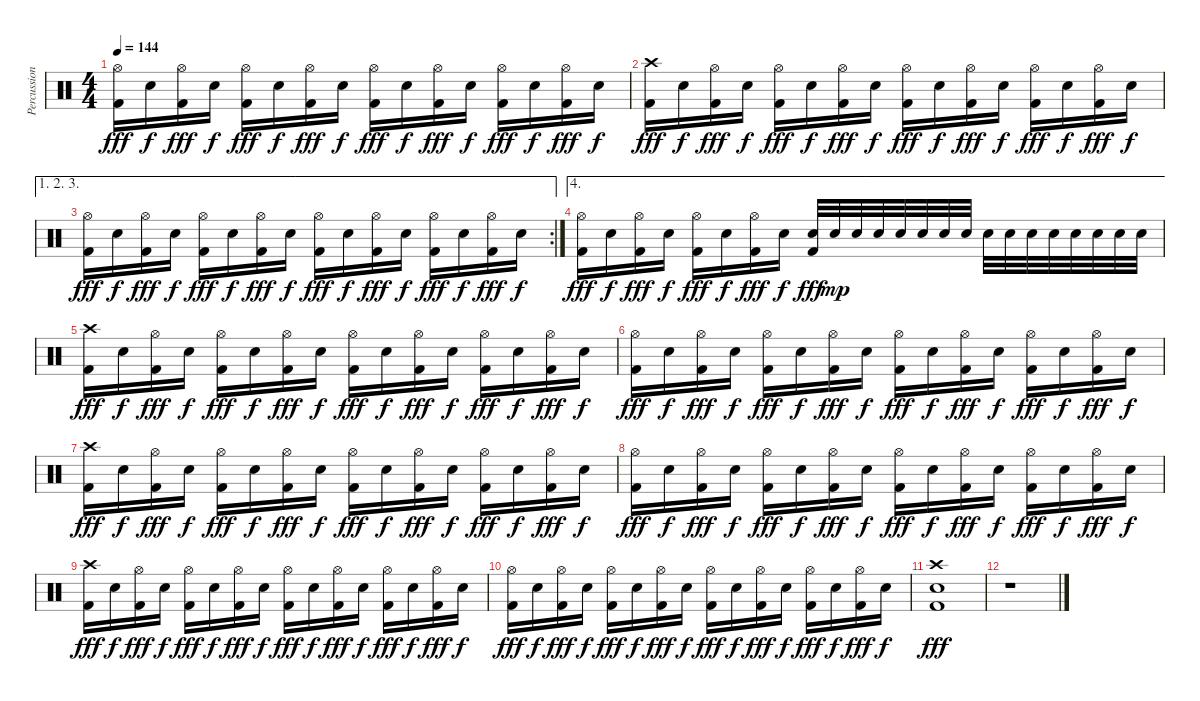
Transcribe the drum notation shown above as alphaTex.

\track ("Percussion" "Percussion") {instrument percussion}
\staff {score}
\articulation defaults
\ts (4 4)
\tempo 144
\clef neutral
\ks c
("Hi-Hat (open)" "Kick (hit) 2").16{dy fff} "Snare (hit) 2".16{dy f} ("Hi-Hat (open)" "Kick (hit) 2").16{dy fff} "Snare (hit) 2".16{dy f} ("Hi-Hat (open)" "Kick (hit) 2").16{dy fff} "Snare (hit) 2".16{dy f} ("Hi-Hat (open)" "Kick (hit) 2").16{dy fff} "Snare (hit) 2".16{dy f} ("Hi-Hat (open)" "Kick (hit) 2").16{dy fff} "Snare (hit) 2".16{dy f} ("Hi-Hat (open)" "Kick (hit) 2").16{dy fff} "Snare (hit) 2".16{dy f} ("Hi-Hat (open)" "Kick (hit) 2").16{dy fff} "Snare (hit) 2".16{dy f} ("Hi-Hat (open)" "Kick (hit) 2").16{dy fff} "Snare (hit) 2".16{dy f} |
("Crash high (hit)" "Kick (hit) 2").16{dy fff} "Snare (hit) 2".16{dy f} ("Hi-Hat (open)" "Kick (hit) 2").16{dy fff} "Snare (hit) 2".16{dy f} ("Hi-Hat (open)" "Kick (hit) 2").16{dy fff} "Snare (hit) 2".16{dy f} ("Hi-Hat (open)" "Kick (hit) 2").16{dy fff} "Snare (hit) 2".16{dy f} ("Hi-Hat (open)" "Kick (hit) 2").16{dy fff} "Snare (hit) 2".16{dy f} ("Hi-Hat (open)" "Kick (hit) 2").16{dy fff} "Snare (hit) 2".16{dy f} ("Hi-Hat (open)" "Kick (hit) 2").16{dy fff} "Snare (hit) 2".16{dy f} ("Hi-Hat (open)" "Kick (hit) 2").16{dy fff} "Snare (hit) 2".16{dy f} |
\ae (1 2 3)
\rc 2
("Hi-Hat (open)" "Kick (hit) 2").16{dy fff} "Snare (hit) 2".16{dy f} ("Hi-Hat (open)" "Kick (hit) 2").16{dy fff} "Snare (hit) 2".16{dy f} ("Hi-Hat (open)" "Kick (hit) 2").16{dy fff} "Snare (hit) 2".16{dy f} ("Hi-Hat (open)" "Kick (hit) 2").16{dy fff} "Snare (hit) 2".16{dy f} ("Hi-Hat (open)" "Kick (hit) 2").16{dy fff} "Snare (hit) 2".16{dy f} ("Hi-Hat (open)" "Kick (hit) 2").16{dy fff} "Snare (hit) 2".16{dy f} ("Hi-Hat (open)" "Kick (hit) 2").16{dy fff} "Snare (hit) 2".16{dy f} ("Hi-Hat (open)" "Kick (hit) 2").16{dy fff} "Snare (hit) 2".16{dy f} |
\ae 4
("Hi-Hat (open)" "Kick (hit) 2").16{dy fff} "Snare (hit) 2".16{dy f} ("Hi-Hat (open)" "Kick (hit) 2").16{dy fff} "Snare (hit) 2".16{dy f} ("Hi-Hat (open)" "Kick (hit) 2").16{dy fff} "Snare (hit) 2".16{dy f} ("Hi-Hat (open)" "Kick (hit) 2").16{dy fff} "Snare (hit) 2".16{dy f} ("Snare (hit) 2" "Kick (hit) 2").32{dy fff} "Snare (hit) 2".32{dy mp} "Snare (hit) 2".32 "Snare (hit) 2".32 "Snare (hit) 2".32 "Snare (hit) 2".32 "Snare (hit) 2".32 "Snare (hit) 2".32 "Snare (hit) 2".32 "Snare (hit) 2".32 "Snare (hit) 2".32 "Snare (hit) 2".32 "Snare (hit) 2".32 "Snare (hit) 2".32 "Snare (hit) 2".32 "Snare (hit) 2".32 |
("Crash high (hit)" "Kick (hit) 2").16{dy fff} "Snare (hit) 2".16{dy f} ("Hi-Hat (open)" "Kick (hit) 2").16{dy fff} "Snare (hit) 2".16{dy f} ("Hi-Hat (open)" "Kick (hit) 2").16{dy fff} "Snare (hit) 2".16{dy f} ("Hi-Hat (open)" "Kick (hit) 2").16{dy fff} "Snare (hit) 2".16{dy f} ("Hi-Hat (open)" "Kick (hit) 2").16{dy fff} "Snare (hit) 2".16{dy f} ("Hi-Hat (open)" "Kick (hit) 2").16{dy fff} "Snare (hit) 2".16{dy f} ("Hi-Hat (open)" "Kick (hit) 2").16{dy fff} "Snare (hit) 2".16{dy f} ("Hi-Hat (open)" "Kick (hit) 2").16{dy fff} "Snare (hit) 2".16{dy f} |
("Hi-Hat (open)" "Kick (hit) 2").16{dy fff} "Snare (hit) 2".16{dy f} ("Hi-Hat (open)" "Kick (hit) 2").16{dy fff} "Snare (hit) 2".16{dy f} ("Hi-Hat (open)" "Kick (hit) 2").16{dy fff} "Snare (hit) 2".16{dy f} ("Hi-Hat (open)" "Kick (hit) 2").16{dy fff} "Snare (hit) 2".16{dy f} ("Hi-Hat (open)" "Kick (hit) 2").16{dy fff} "Snare (hit) 2".16{dy f} ("Hi-Hat (open)" "Kick (hit) 2").16{dy fff} "Snare (hit) 2".16{dy f} ("Hi-Hat (open)" "Kick (hit) 2").16{dy fff} "Snare (hit) 2".16{dy f} ("Hi-Hat (open)" "Kick (hit) 2").16{dy fff} "Snare (hit) 2".16{dy f} |
("Crash high (hit)" "Kick (hit) 2").16{dy fff} "Snare (hit) 2".16{dy f} ("Hi-Hat (open)" "Kick (hit) 2").16{dy fff} "Snare (hit) 2".16{dy f} ("Hi-Hat (open)" "Kick (hit) 2").16{dy fff} "Snare (hit) 2".16{dy f} ("Hi-Hat (open)" "Kick (hit) 2").16{dy fff} "Snare (hit) 2".16{dy f} ("Hi-Hat (open)" "Kick (hit) 2").16{dy fff} "Snare (hit) 2".16{dy f} ("Hi-Hat (open)" "Kick (hit) 2").16{dy fff} "Snare (hit) 2".16{dy f} ("Hi-Hat (open)" "Kick (hit) 2").16{dy fff} "Snare (hit) 2".16{dy f} ("Hi-Hat (open)" "Kick (hit) 2").16{dy fff} "Snare (hit) 2".16{dy f} |
("Hi-Hat (open)" "Kick (hit) 2").16{dy fff} "Snare (hit) 2".16{dy f} ("Hi-Hat (open)" "Kick (hit) 2").16{dy fff} "Snare (hit) 2".16{dy f} ("Hi-Hat (open)" "Kick (hit) 2").16{dy fff} "Snare (hit) 2".16{dy f} ("Hi-Hat (open)" "Kick (hit) 2").16{dy fff} "Snare (hit) 2".16{dy f} ("Hi-Hat (open)" "Kick (hit) 2").16{dy fff} "Snare (hit) 2".16{dy f} ("Hi-Hat (open)" "Kick (hit) 2").16{dy fff} "Snare (hit) 2".16{dy f} ("Hi-Hat (open)" "Kick (hit) 2").16{dy fff} "Snare (hit) 2".16{dy f} ("Hi-Hat (open)" "Kick (hit) 2").16{dy fff} "Snare (hit) 2".16{dy f} |
("Crash high (hit)" "Kick (hit) 2").16{dy fff} "Snare (hit) 2".16{dy f} ("Hi-Hat (open)" "Kick (hit) 2").16{dy fff} "Snare (hit) 2".16{dy f} ("Hi-Hat (open)" "Kick (hit) 2").16{dy fff} "Snare (hit) 2".16{dy f} ("Hi-Hat (open)" "Kick (hit) 2").16{dy fff} "Snare (hit) 2".16{dy f} ("Hi-Hat (open)" "Kick (hit) 2").16{dy fff} "Snare (hit) 2".16{dy f} ("Hi-Hat (open)" "Kick (hit) 2").16{dy fff} "Snare (hit) 2".16{dy f} ("Hi-Hat (open)" "Kick (hit) 2").16{dy fff} "Snare (hit) 2".16{dy f} ("Hi-Hat (open)" "Kick (hit) 2").16{dy fff} "Snare (hit) 2".16{dy f} |
("Hi-Hat (open)" "Kick (hit) 2").16{dy fff} "Snare (hit) 2".16{dy f} ("Hi-Hat (open)" "Kick (hit) 2").16{dy fff} "Snare (hit) 2".16{dy f} ("Hi-Hat (open)" "Kick (hit) 2").16{dy fff} "Snare (hit) 2".16{dy f} ("Hi-Hat (open)" "Kick (hit) 2").16{dy fff} "Snare (hit) 2".16{dy f} ("Hi-Hat (open)" "Kick (hit) 2").16{dy fff} "Snare (hit) 2".16{dy f} ("Hi-Hat (open)" "Kick (hit) 2").16{dy fff} "Snare (hit) 2".16{dy f} ("Hi-Hat (open)" "Kick (hit) 2").16{dy fff} "Snare (hit) 2".16{dy f} ("Hi-Hat (open)" "Kick (hit) 2").16{dy fff} "Snare (hit) 2".16{dy f} |
("Crash high (hit)" "Snare (hit) 2" "Kick (hit) 2").1{dy fff} |
r.1
